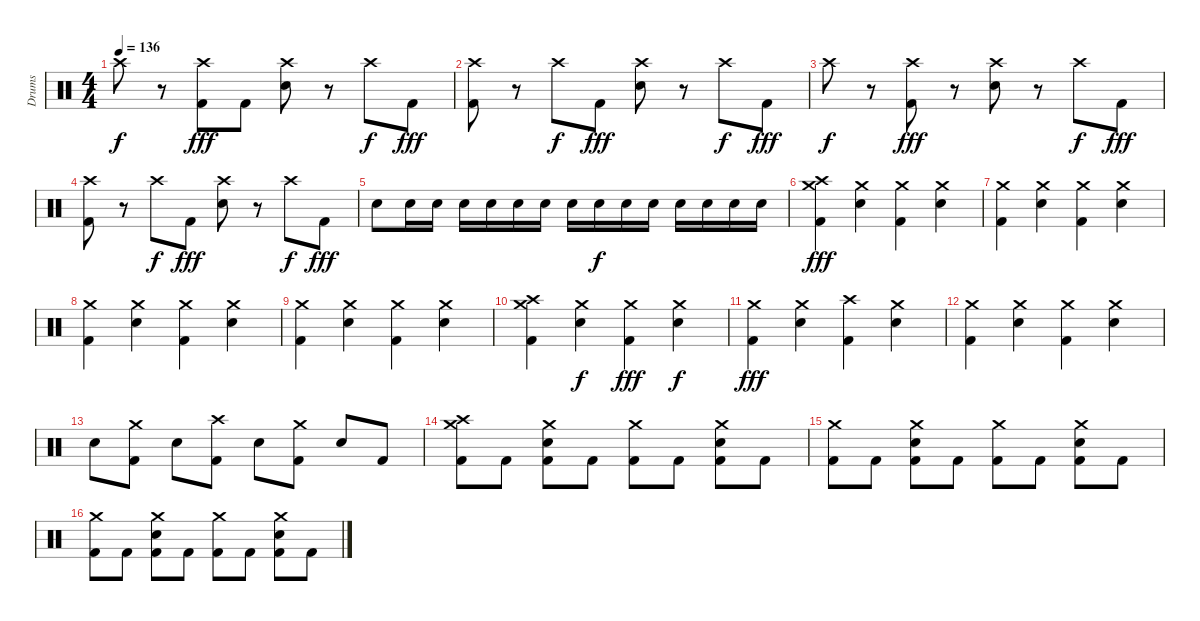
\track ("Drums" "Drums") {instrument percussion}
\staff {score}
\articulation defaults
\ts (4 4)
\tempo 136
\clef neutral
\ks c "Crash high (hit)".8{dy f}
r.8 ("Crash high (hit)" "Kick (hit) 2").8{dy fff} "Kick (hit) 2".8 ("Crash high (hit)" "Electric Snare (hit)").8 r.8 "Crash high (hit)".8{dy f} "Kick (hit) 2".8{dy fff} |
("Crash high (hit)" "Kick (hit) 2").8 r.8 "Crash high (hit)".8{dy f} "Kick (hit) 2".8{dy fff} ("Crash high (hit)" "Electric Snare (hit)").8 r.8 "Crash high (hit)".8{dy f} "Kick (hit) 2".8{dy fff} |
"Crash high (hit)".8{dy f} r.8 ("Crash high (hit)" "Kick (hit) 2").8{dy fff} r.8 ("Crash high (hit)" "Electric Snare (hit)").8 r.8 "Crash high (hit)".8{dy f} "Kick (hit) 2".8{dy fff} |
("Crash high (hit)" "Kick (hit) 2").8 r.8 "Crash high (hit)".8{dy f} "Kick (hit) 2".8{dy fff} ("Crash high (hit)" "Electric Snare (hit)").8 r.8 "Crash high (hit)".8{dy f} "Kick (hit) 2".8{dy fff} |
"Electric Snare (hit)".8 "Electric Snare (hit)".16 "Electric Snare (hit)".16 "Electric Snare (hit)".16 "Electric Snare (hit)".16 "Electric Snare (hit)".16 "Electric Snare (hit)".16 "Electric Snare (hit)".16 "Electric Snare (hit)".16{dy f} "Electric Snare (hit)".16 "Electric Snare (hit)".16 "Electric Snare (hit)".16 "Electric Snare (hit)".16 "Electric Snare (hit)".16 "Electric Snare (hit)".16 |
("Crash medium (hit)" "Crash high (hit)" "Kick (hit) 2").4{dy fff} ("Crash medium (hit)" "Electric Snare (hit)").4 ("Crash medium (hit)" "Kick (hit) 2").4 ("Crash medium (hit)" "Electric Snare (hit)").4 |
("Crash medium (hit)" "Kick (hit) 2").4 ("Crash medium (hit)" "Electric Snare (hit)").4 ("Crash medium (hit)" "Kick (hit) 2").4 ("Crash medium (hit)" "Electric Snare (hit)").4 |
("Crash medium (hit)" "Kick (hit) 2").4 ("Crash medium (hit)" "Electric Snare (hit)").4 ("Crash medium (hit)" "Kick (hit) 2").4 ("Crash medium (hit)" "Electric Snare (hit)").4 |
("Crash medium (hit)" "Kick (hit) 2").4 ("Crash medium (hit)" "Electric Snare (hit)").4 ("Crash medium (hit)" "Kick (hit) 2").4 ("Crash medium (hit)" "Electric Snare (hit)").4 |
("Crash medium (hit)" "Crash high (hit)" "Kick (hit) 2").4 ("Crash medium (hit)" "Electric Snare (hit)").4{dy f} ("Crash medium (hit)" "Kick (hit) 2").4{dy fff} ("Crash medium (hit)" "Electric Snare (hit)").4{dy f} |
("Crash medium (hit)" "Kick (hit) 2").4{dy fff} ("Crash medium (hit)" "Electric Snare (hit)").4 ("Crash high (hit)" "Kick (hit) 2").4 ("Crash medium (hit)" "Electric Snare (hit)").4 |
("Crash medium (hit)" "Kick (hit) 2").4 ("Crash medium (hit)" "Electric Snare (hit)").4 ("Crash medium (hit)" "Kick (hit) 2").4 ("Crash medium (hit)" "Electric Snare (hit)").4 |
"Electric Snare (hit)".8 ("Crash medium (hit)" "Kick (hit) 2").8 "Electric Snare (hit)".8 ("Crash high (hit)" "Kick (hit) 2").8 "Electric Snare (hit)".8 ("Crash medium (hit)" "Kick (hit) 2").8 "Electric Snare (hit)".8 "Kick (hit) 2".8 |
("Crash medium (hit)" "Crash high (hit)" "Kick (hit) 2").8 "Kick (hit) 2".8 ("Crash medium (hit)" "Electric Snare (hit)" "Kick (hit) 2").8 "Kick (hit) 2".8 ("Crash medium (hit)" "Kick (hit) 2").8 "Kick (hit) 2".8 ("Crash medium (hit)" "Electric Snare (hit)" "Kick (hit) 2").8 "Kick (hit) 2".8 |
("Crash medium (hit)" "Kick (hit) 2").8 "Kick (hit) 2".8 ("Crash medium (hit)" "Electric Snare (hit)" "Kick (hit) 2").8 "Kick (hit) 2".8 ("Crash medium (hit)" "Kick (hit) 2").8 "Kick (hit) 2".8 ("Crash medium (hit)" "Electric Snare (hit)" "Kick (hit) 2").8 "Kick (hit) 2".8 |
("Crash medium (hit)" "Kick (hit) 2").8 "Kick (hit) 2".8 ("Crash medium (hit)" "Electric Snare (hit)" "Kick (hit) 2").8 "Kick (hit) 2".8 ("Crash medium (hit)" "Kick (hit) 2").8 "Kick (hit) 2".8 ("Crash medium (hit)" "Electric Snare (hit)" "Kick (hit) 2").8 "Kick (hit) 2".8
